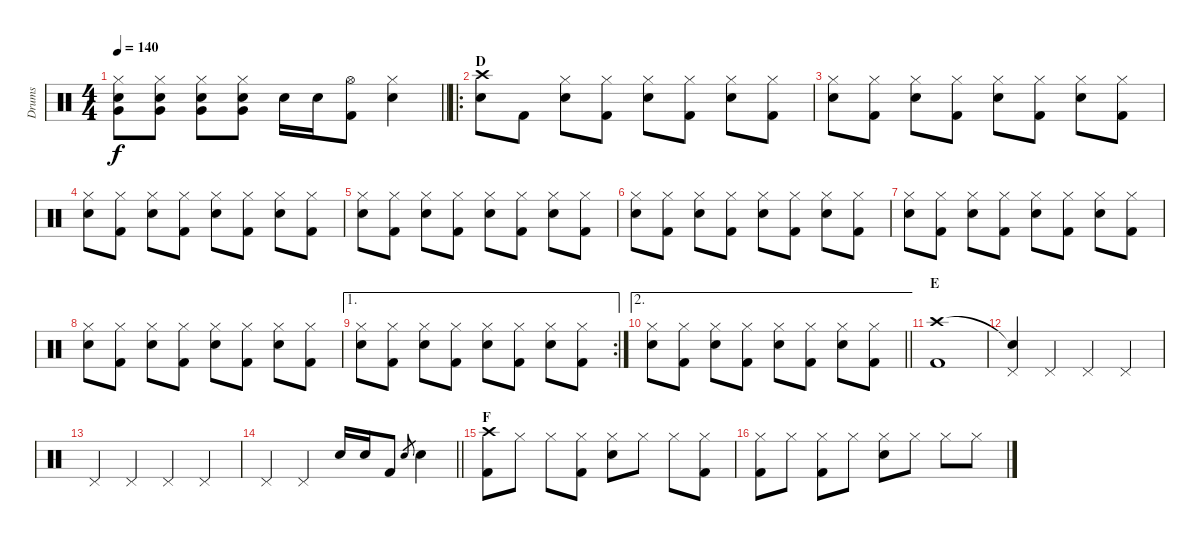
\track ("Drums" "Drums") {instrument percussion}
\staff {score}
\articulation defaults
\ts (4 4)
\tempo 140
\clef neutral
\barLineRight lightlight
\ks c
("Hi-Hat (closed)" "Snare (hit) 2" "Very Low Tom (hit)").8{dy f} ("Hi-Hat (closed)" "Snare (hit) 2" "Very Low Tom (hit)").8 ("Hi-Hat (closed)" "Snare (hit) 2" "Very Low Tom (hit)").8 ("Hi-Hat (closed)" "Snare (hit) 2" "Very Low Tom (hit)").8 "Snare (hit) 2".16 "Snare (hit) 2".16 ("Hi-Hat (open)" "Kick (hit) 2").8 ("Hi-Hat (closed)" "Snare (hit) 2").4 |
\ro
\section ("" "D")
("Crash high (hit)" "Snare (hit) 2").8 "Kick (hit) 2".8 ("Hi-Hat (closed)" "Snare (hit) 2").8 ("Hi-Hat (closed)" "Kick (hit) 2").8 ("Hi-Hat (closed)" "Snare (hit) 2").8 ("Hi-Hat (closed)" "Kick (hit) 2").8 ("Hi-Hat (closed)" "Snare (hit) 2").8 ("Hi-Hat (closed)" "Kick (hit) 2").8 |
("Hi-Hat (closed)" "Snare (hit) 2").8 ("Hi-Hat (closed)" "Kick (hit) 2").8 ("Hi-Hat (closed)" "Snare (hit) 2").8 ("Hi-Hat (closed)" "Kick (hit) 2").8 ("Hi-Hat (closed)" "Snare (hit) 2").8 ("Hi-Hat (closed)" "Kick (hit) 2").8 ("Hi-Hat (closed)" "Snare (hit) 2").8 ("Hi-Hat (closed)" "Kick (hit) 2").8 |
("Hi-Hat (closed)" "Snare (hit) 2").8 ("Hi-Hat (closed)" "Kick (hit) 2").8 ("Hi-Hat (closed)" "Snare (hit) 2").8 ("Hi-Hat (closed)" "Kick (hit) 2").8 ("Hi-Hat (closed)" "Snare (hit) 2").8 ("Hi-Hat (closed)" "Kick (hit) 2").8 ("Hi-Hat (closed)" "Snare (hit) 2").8 ("Hi-Hat (closed)" "Kick (hit) 2").8 |
("Hi-Hat (closed)" "Snare (hit) 2").8 ("Hi-Hat (closed)" "Kick (hit) 2").8 ("Hi-Hat (closed)" "Snare (hit) 2").8 ("Hi-Hat (closed)" "Kick (hit) 2").8 ("Hi-Hat (closed)" "Snare (hit) 2").8 ("Hi-Hat (closed)" "Kick (hit) 2").8 ("Hi-Hat (closed)" "Snare (hit) 2").8 ("Hi-Hat (closed)" "Kick (hit) 2").8 |
("Hi-Hat (closed)" "Snare (hit) 2").8 ("Hi-Hat (closed)" "Kick (hit) 2").8 ("Hi-Hat (closed)" "Snare (hit) 2").8 ("Hi-Hat (closed)" "Kick (hit) 2").8 ("Hi-Hat (closed)" "Snare (hit) 2").8 ("Hi-Hat (closed)" "Kick (hit) 2").8 ("Hi-Hat (closed)" "Snare (hit) 2").8 ("Hi-Hat (closed)" "Kick (hit) 2").8 |
("Hi-Hat (closed)" "Snare (hit) 2").8 ("Hi-Hat (closed)" "Kick (hit) 2").8 ("Hi-Hat (closed)" "Snare (hit) 2").8 ("Hi-Hat (closed)" "Kick (hit) 2").8 ("Hi-Hat (closed)" "Snare (hit) 2").8 ("Hi-Hat (closed)" "Kick (hit) 2").8 ("Hi-Hat (closed)" "Snare (hit) 2").8 ("Hi-Hat (closed)" "Kick (hit) 2").8 |
("Hi-Hat (closed)" "Snare (hit) 2").8 ("Hi-Hat (closed)" "Kick (hit) 2").8 ("Hi-Hat (closed)" "Snare (hit) 2").8 ("Hi-Hat (closed)" "Kick (hit) 2").8 ("Hi-Hat (closed)" "Snare (hit) 2").8 ("Hi-Hat (closed)" "Kick (hit) 2").8 ("Hi-Hat (closed)" "Snare (hit) 2").8 ("Hi-Hat (closed)" "Kick (hit) 2").8 |
\ae 1
\rc 2
("Hi-Hat (closed)" "Snare (hit) 2").8 ("Hi-Hat (closed)" "Kick (hit) 2").8 ("Hi-Hat (closed)" "Snare (hit) 2").8 ("Hi-Hat (closed)" "Kick (hit) 2").8 ("Hi-Hat (closed)" "Snare (hit) 2").8 ("Hi-Hat (closed)" "Kick (hit) 2").8 ("Hi-Hat (closed)" "Snare (hit) 2").8 ("Hi-Hat (closed)" "Kick (hit) 2").8 |
\ae 2
\barLineRight lightlight
("Hi-Hat (closed)" "Snare (hit) 2").8 ("Hi-Hat (closed)" "Kick (hit) 2").8 ("Hi-Hat (closed)" "Snare (hit) 2").8 ("Hi-Hat (closed)" "Kick (hit) 2").8 ("Hi-Hat (closed)" "Snare (hit) 2").8 ("Hi-Hat (closed)" "Kick (hit) 2").8 ("Hi-Hat (closed)" "Snare (hit) 2").8 ("Hi-Hat (closed)" "Kick (hit) 2").8 |
\section ("" "E")
("Crash high (hit)" "Kick (hit) 2").1 |
("Snare (hit)"{t} "Pedal Hi-Hat (hit)").4 "Pedal Hi-Hat (hit)".4 "Pedal Hi-Hat (hit)".4 "Pedal Hi-Hat (hit)".4 |
"Pedal Hi-Hat (hit)".4 "Pedal Hi-Hat (hit)".4 "Pedal Hi-Hat (hit)".4 "Pedal Hi-Hat (hit)".4 |
\barLineRight lightlight "Pedal Hi-Hat (hit)".4 "Pedal Hi-Hat (hit)".4 "Snare (hit) 2".16 "Snare (hit) 2".16 "Kick (hit) 2".8 "Snare (hit) 2".8{gr} "Snare (hit) 2".4
|
\section ("" "F")
("Crash high (hit)" "Kick (hit) 2").8 "Hi-Hat (closed)".8 "Hi-Hat (closed)".8 ("Hi-Hat (closed)" "Kick (hit) 2").8 ("Hi-Hat (closed)" "Snare (hit) 2").8 "Hi-Hat (closed)".8 "Hi-Hat (closed)".8 ("Hi-Hat (closed)" "Kick (hit) 2").8 |
("Hi-Hat (closed)" "Kick (hit) 2").8 "Hi-Hat (closed)".8 ("Hi-Hat (closed)" "Kick (hit) 2").8 "Hi-Hat (closed)".8 ("Hi-Hat (closed)" "Snare (hit) 2").8 "Hi-Hat (closed)".8 "Hi-Hat (closed)".8 "Hi-Hat (closed)".8
